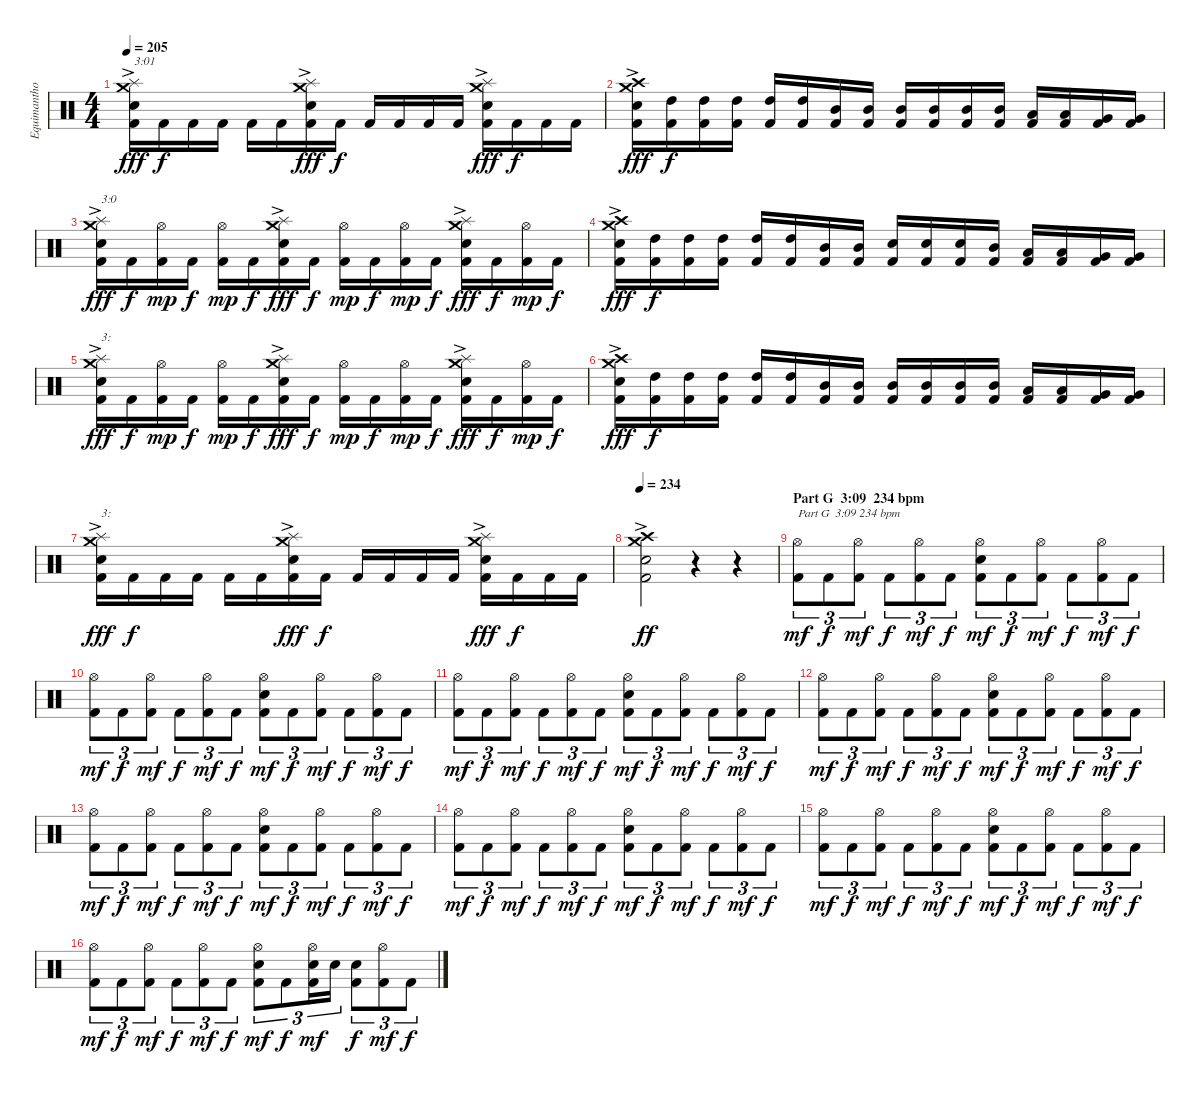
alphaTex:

\track ("Equimanthorn" "Equimantho") {instrument percussion}
\staff {score}
\articulation defaults
\ts (4 4)
\tempo 205
\clef neutral
\ks c
("Kick (hit) 2" "Electric Snare (hit)"{ac} "Splash (hit)" "Crash medium (hit)").16{txt "3:01" dy fff} "Kick (hit) 2".16{dy f} "Kick (hit) 2".16 "Kick (hit) 2".16 "Kick (hit) 2".16 "Kick (hit) 2".16 ("Kick (hit) 2" "Electric Snare (hit)"{ac} "Splash (hit)" "Crash medium (hit)").16{dy fff} "Kick (hit) 2".16{dy f} "Kick (hit) 2".16 "Kick (hit) 2".16 "Kick (hit) 2".16 "Kick (hit) 2".16 ("Kick (hit) 2" "Electric Snare (hit)"{ac} "Splash (hit)" "Crash medium (hit)").16{dy fff} "Kick (hit) 2".16{dy f} "Kick (hit) 2".16 "Kick (hit) 2".16 |
("Kick (hit) 2" "Electric Snare (hit)"{ac} "Crash high (hit)" "Crash medium (hit)").16{dy fff} ("Kick (hit) 2" "High Tom (hit)").16{dy f} ("Kick (hit) 2" "High Tom (hit)").16 ("Kick (hit) 2" "High Tom (hit)").16 ("Kick (hit) 2" "High Tom (hit)").16 ("Kick (hit) 2" "High Tom (hit)").16 ("Kick (hit) 2" "Mid Tom (hit)").16 ("Kick (hit) 2" "Mid Tom (hit)").16 ("Kick (hit) 2" "Mid Tom (hit)").16 ("Kick (hit) 2" "Mid Tom (hit)").16 ("Kick (hit) 2" "Mid Tom (hit)").16 ("Kick (hit) 2" "Mid Tom (hit)").16 ("Kick (hit) 2" "Low Tom (hit)").16 ("Kick (hit) 2" "Low Tom (hit)").16 ("Kick (hit) 2" "Very Low Tom (hit)").16 ("Kick (hit) 2" "Very Low Tom (hit)").16 |
("Kick (hit) 2" "Electric Snare (hit)"{ac} "Splash (hit)" "Crash medium (hit)").16{txt "3:0" dy fff} "Kick (hit) 2".16{dy f} ("Kick (hit) 2" "Hi-Hat (open)").16{dy mp} "Kick (hit) 2".16{dy f} ("Kick (hit) 2" "Hi-Hat (open)").16{dy mp} "Kick (hit) 2".16{dy f} ("Kick (hit) 2" "Electric Snare (hit)"{ac} "Splash (hit)" "Crash medium (hit)").16{dy fff} "Kick (hit) 2".16{dy f} ("Kick (hit) 2" "Hi-Hat (open)").16{dy mp} "Kick (hit) 2".16{dy f} ("Kick (hit) 2" "Hi-Hat (open)").16{dy mp} "Kick (hit) 2".16{dy f} ("Kick (hit) 2" "Electric Snare (hit)"{ac} "Splash (hit)" "Crash medium (hit)").16{dy fff} "Kick (hit) 2".16{dy f} ("Kick (hit) 2" "Hi-Hat (open)").16{dy mp} "Kick (hit) 2".16{dy f} |
("Kick (hit) 2" "Electric Snare (hit)"{ac} "Crash high (hit)" "Crash medium (hit)").16{dy fff} ("Kick (hit) 2" "High Tom (hit)").16{dy f} ("Kick (hit) 2" "High Tom (hit)").16 ("Kick (hit) 2" "High Tom (hit)").16 ("Kick (hit) 2" "High Tom (hit)").16 ("Kick (hit) 2" "High Tom (hit)").16 ("Kick (hit) 2" "Mid Tom (hit)").16 ("Kick (hit) 2" "Mid Tom (hit)").16 ("Kick (hit) 2" "Electric Snare (hit)").16 ("Kick (hit) 2" "Electric Snare (hit)").16 ("Kick (hit) 2" "Electric Snare (hit)").16 ("Kick (hit) 2" "Mid Tom (hit)").16 ("Kick (hit) 2" "Low Tom (hit)").16 ("Kick (hit) 2" "Low Tom (hit)").16 ("Kick (hit) 2" "Very Low Tom (hit)").16 ("Kick (hit) 2" "Very Low Tom (hit)").16 |
("Kick (hit) 2" "Electric Snare (hit)"{ac} "Splash (hit)" "Crash medium (hit)").16{txt "3:" dy fff} "Kick (hit) 2".16{dy f} ("Kick (hit) 2" "Hi-Hat (open)").16{dy mp} "Kick (hit) 2".16{dy f} ("Kick (hit) 2" "Hi-Hat (open)").16{dy mp} "Kick (hit) 2".16{dy f} ("Kick (hit) 2" "Electric Snare (hit)"{ac} "Splash (hit)" "Crash medium (hit)").16{dy fff} "Kick (hit) 2".16{dy f} ("Kick (hit) 2" "Hi-Hat (open)").16{dy mp} "Kick (hit) 2".16{dy f} ("Kick (hit) 2" "Hi-Hat (open)").16{dy mp} "Kick (hit) 2".16{dy f} ("Kick (hit) 2" "Electric Snare (hit)"{ac} "Splash (hit)" "Crash medium (hit)").16{dy fff} "Kick (hit) 2".16{dy f} ("Kick (hit) 2" "Hi-Hat (open)").16{dy mp} "Kick (hit) 2".16{dy f} |
("Kick (hit) 2" "Electric Snare (hit)"{ac} "Crash high (hit)" "Crash medium (hit)").16{dy fff} ("Kick (hit) 2" "High Tom (hit)").16{dy f} ("Kick (hit) 2" "High Tom (hit)").16 ("Kick (hit) 2" "High Tom (hit)").16 ("Kick (hit) 2" "High Tom (hit)").16 ("Kick (hit) 2" "High Tom (hit)").16 ("Kick (hit) 2" "Mid Tom (hit)").16 ("Kick (hit) 2" "Mid Tom (hit)").16 ("Kick (hit) 2" "Mid Tom (hit)").16 ("Kick (hit) 2" "Mid Tom (hit)").16 ("Kick (hit) 2" "Mid Tom (hit)").16 ("Kick (hit) 2" "Mid Tom (hit)").16 ("Kick (hit) 2" "Low Tom (hit)").16 ("Kick (hit) 2" "Low Tom (hit)").16 ("Kick (hit) 2" "Very Low Tom (hit)").16 ("Kick (hit) 2" "Very Low Tom (hit)").16 |
("Kick (hit) 2" "Electric Snare (hit)"{ac} "Splash (hit)" "Crash medium (hit)").16{txt "3:" dy fff} "Kick (hit) 2".16{dy f} "Kick (hit) 2".16 "Kick (hit) 2".16 "Kick (hit) 2".16 "Kick (hit) 2".16 ("Kick (hit) 2" "Electric Snare (hit)"{ac} "Splash (hit)" "Crash medium (hit)").16{dy fff} "Kick (hit) 2".16{dy f} "Kick (hit) 2".16 "Kick (hit) 2".16 "Kick (hit) 2".16 "Kick (hit) 2".16 ("Kick (hit) 2" "Electric Snare (hit)"{ac} "Splash (hit)" "Crash medium (hit)").16{dy fff} "Kick (hit) 2".16{dy f} "Kick (hit) 2".16 "Kick (hit) 2".16 |
\tempo 234
("Kick (hit) 2" "Electric Snare (hit)"{ac} "Crash high (hit)" "Crash medium (hit)").2{dy ff volume 0} r.4 r.4 |
\section ("" "Part G  3:09  234 bpm")
("Kick (hit) 2" "Hi-Hat (open)").8{tu (3 2) txt "Part G  3:09 234 bpm" dy mf volume 14} "Kick (hit) 2".8{tu (3 2) dy f} ("Kick (hit) 2" "Hi-Hat (open)").8{tu (3 2) dy mf} "Kick (hit) 2".8{tu (3 2) dy f} ("Kick (hit) 2" "Hi-Hat (open)").8{tu (3 2) dy mf} "Kick (hit) 2".8{tu (3 2) dy f} ("Kick (hit) 2" "Electric Snare (hit)" "Hi-Hat (open)").8{tu (3 2) dy mf} "Kick (hit) 2".8{tu (3 2) dy f} ("Kick (hit) 2" "Hi-Hat (open)").8{tu (3 2) dy mf} "Kick (hit) 2".8{tu (3 2) dy f} ("Kick (hit) 2" "Hi-Hat (open)").8{tu (3 2) dy mf} "Kick (hit) 2".8{tu (3 2) dy f} |
("Kick (hit) 2" "Hi-Hat (open)").8{tu (3 2) dy mf} "Kick (hit) 2".8{tu (3 2) dy f} ("Kick (hit) 2" "Hi-Hat (open)").8{tu (3 2) dy mf} "Kick (hit) 2".8{tu (3 2) dy f} ("Kick (hit) 2" "Hi-Hat (open)").8{tu (3 2) dy mf} "Kick (hit) 2".8{tu (3 2) dy f} ("Kick (hit) 2" "Electric Snare (hit)" "Hi-Hat (open)").8{tu (3 2) dy mf} "Kick (hit) 2".8{tu (3 2) dy f} ("Kick (hit) 2" "Hi-Hat (open)").8{tu (3 2) dy mf} "Kick (hit) 2".8{tu (3 2) dy f} ("Kick (hit) 2" "Hi-Hat (open)").8{tu (3 2) dy mf} "Kick (hit) 2".8{tu (3 2) dy f} |
("Kick (hit) 2" "Hi-Hat (open)").8{tu (3 2) dy mf} "Kick (hit) 2".8{tu (3 2) dy f} ("Kick (hit) 2" "Hi-Hat (open)").8{tu (3 2) dy mf} "Kick (hit) 2".8{tu (3 2) dy f} ("Kick (hit) 2" "Hi-Hat (open)").8{tu (3 2) dy mf} "Kick (hit) 2".8{tu (3 2) dy f} ("Kick (hit) 2" "Electric Snare (hit)" "Hi-Hat (open)").8{tu (3 2) dy mf} "Kick (hit) 2".8{tu (3 2) dy f} ("Kick (hit) 2" "Hi-Hat (open)").8{tu (3 2) dy mf} "Kick (hit) 2".8{tu (3 2) dy f} ("Kick (hit) 2" "Hi-Hat (open)").8{tu (3 2) dy mf} "Kick (hit) 2".8{tu (3 2) dy f} |
("Kick (hit) 2" "Hi-Hat (open)").8{tu (3 2) dy mf} "Kick (hit) 2".8{tu (3 2) dy f} ("Kick (hit) 2" "Hi-Hat (open)").8{tu (3 2) dy mf} "Kick (hit) 2".8{tu (3 2) dy f} ("Kick (hit) 2" "Hi-Hat (open)").8{tu (3 2) dy mf} "Kick (hit) 2".8{tu (3 2) dy f} ("Kick (hit) 2" "Electric Snare (hit)" "Hi-Hat (open)").8{tu (3 2) dy mf} "Kick (hit) 2".8{tu (3 2) dy f} ("Kick (hit) 2" "Hi-Hat (open)").8{tu (3 2) dy mf} "Kick (hit) 2".8{tu (3 2) dy f} ("Kick (hit) 2" "Hi-Hat (open)").8{tu (3 2) dy mf} "Kick (hit) 2".8{tu (3 2) dy f} |
("Kick (hit) 2" "Hi-Hat (open)").8{tu (3 2) dy mf} "Kick (hit) 2".8{tu (3 2) dy f} ("Kick (hit) 2" "Hi-Hat (open)").8{tu (3 2) dy mf} "Kick (hit) 2".8{tu (3 2) dy f} ("Kick (hit) 2" "Hi-Hat (open)").8{tu (3 2) dy mf} "Kick (hit) 2".8{tu (3 2) dy f} ("Kick (hit) 2" "Electric Snare (hit)" "Hi-Hat (open)").8{tu (3 2) dy mf} "Kick (hit) 2".8{tu (3 2) dy f} ("Kick (hit) 2" "Hi-Hat (open)").8{tu (3 2) dy mf} "Kick (hit) 2".8{tu (3 2) dy f} ("Kick (hit) 2" "Hi-Hat (open)").8{tu (3 2) dy mf} "Kick (hit) 2".8{tu (3 2) dy f} |
("Kick (hit) 2" "Hi-Hat (open)").8{tu (3 2) dy mf} "Kick (hit) 2".8{tu (3 2) dy f} ("Kick (hit) 2" "Hi-Hat (open)").8{tu (3 2) dy mf} "Kick (hit) 2".8{tu (3 2) dy f} ("Kick (hit) 2" "Hi-Hat (open)").8{tu (3 2) dy mf} "Kick (hit) 2".8{tu (3 2) dy f} ("Kick (hit) 2" "Electric Snare (hit)" "Hi-Hat (open)").8{tu (3 2) dy mf} "Kick (hit) 2".8{tu (3 2) dy f} ("Kick (hit) 2" "Hi-Hat (open)").8{tu (3 2) dy mf} "Kick (hit) 2".8{tu (3 2) dy f} ("Kick (hit) 2" "Hi-Hat (open)").8{tu (3 2) dy mf} "Kick (hit) 2".8{tu (3 2) dy f} |
("Kick (hit) 2" "Hi-Hat (open)").8{tu (3 2) dy mf} "Kick (hit) 2".8{tu (3 2) dy f} ("Kick (hit) 2" "Hi-Hat (open)").8{tu (3 2) dy mf} "Kick (hit) 2".8{tu (3 2) dy f} ("Kick (hit) 2" "Hi-Hat (open)").8{tu (3 2) dy mf} "Kick (hit) 2".8{tu (3 2) dy f} ("Kick (hit) 2" "Electric Snare (hit)" "Hi-Hat (open)").8{tu (3 2) dy mf} "Kick (hit) 2".8{tu (3 2) dy f} ("Kick (hit) 2" "Hi-Hat (open)").8{tu (3 2) dy mf} "Kick (hit) 2".8{tu (3 2) dy f} ("Kick (hit) 2" "Hi-Hat (open)").8{tu (3 2) dy mf} "Kick (hit) 2".8{tu (3 2) dy f} |
("Kick (hit) 2" "Hi-Hat (open)").8{tu (3 2) dy mf} "Kick (hit) 2".8{tu (3 2) dy f} ("Kick (hit) 2" "Hi-Hat (open)").8{tu (3 2) dy mf} "Kick (hit) 2".8{tu (3 2) dy f} ("Kick (hit) 2" "Hi-Hat (open)").8{tu (3 2) dy mf} "Kick (hit) 2".8{tu (3 2) dy f} ("Kick (hit) 2" "Electric Snare (hit)" "Hi-Hat (open)").8{tu (3 2) dy mf} "Kick (hit) 2".8{tu (3 2) dy f} ("Kick (hit) 2" "Electric Snare (hit)" "Hi-Hat (open)").16{tu (3 2) dy mf} "Electric Snare (hit)".16{tu (3 2)} ("Kick (hit) 2" "Electric Snare (hit)").8{tu (3 2) dy f} ("Kick (hit) 2" "Hi-Hat (open)").8{tu (3 2) dy mf} "Kick (hit) 2".8{tu (3 2) dy f}
